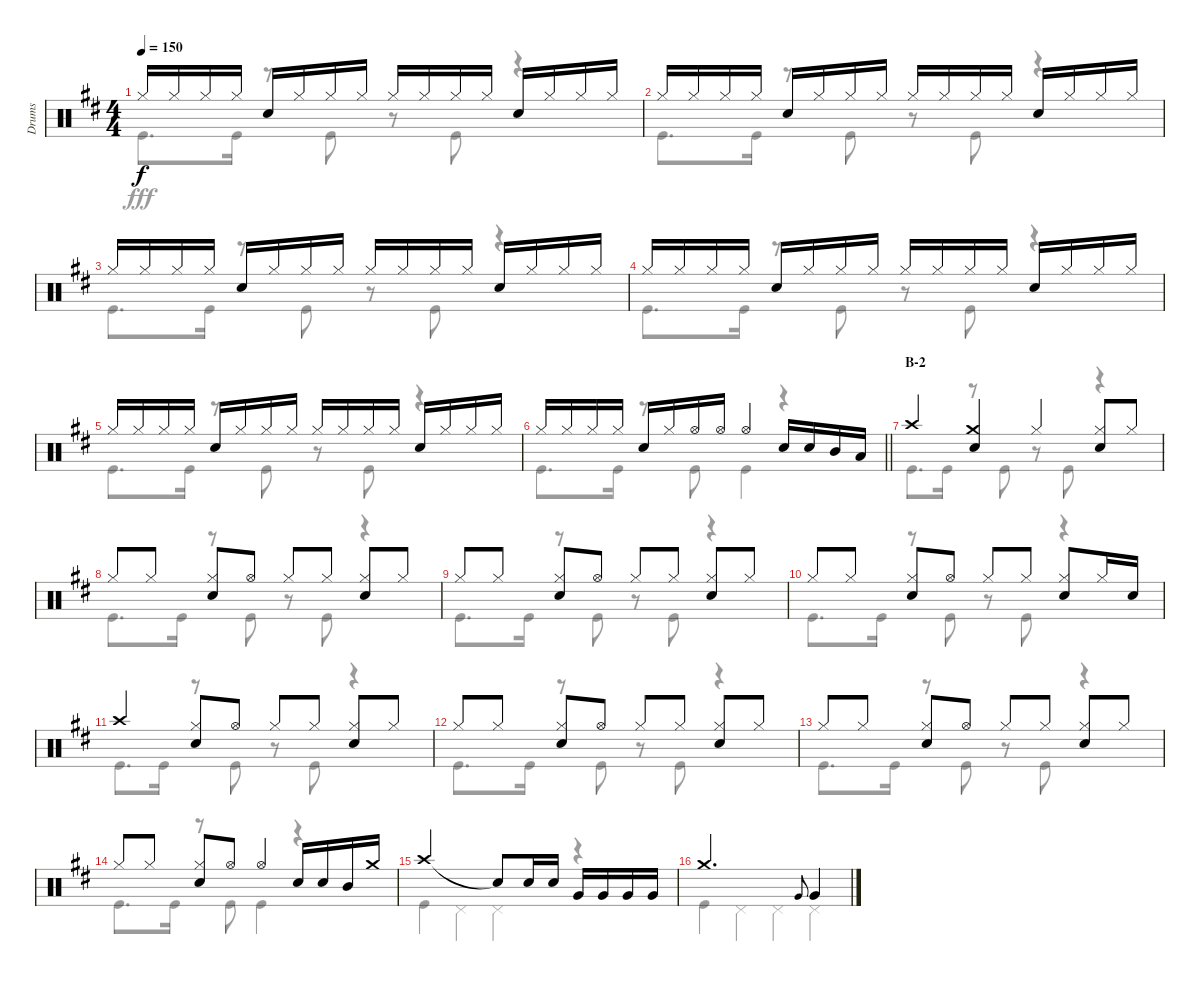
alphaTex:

\track ("Drums" "Drums") {instrument percussion}
\staff {score}
\articulation defaults
\voice
\ts (4 4)
\tempo 150
\clef neutral
\ks d "Hi-Hat (closed)".16{dy f} "Hi-Hat (closed)".16 "Hi-Hat (closed)".16 "Hi-Hat (closed)".16 "Snare (hit) 2".16 "Hi-Hat (closed)".16 "Hi-Hat (closed)".16 "Hi-Hat (closed)".16 "Hi-Hat (closed)".16 "Hi-Hat (closed)".16 "Hi-Hat (closed)".16 "Hi-Hat (closed)".16 "Snare (hit) 2".16 "Hi-Hat (closed)".16 "Hi-Hat (closed)".16 "Hi-Hat (closed)".16
|
"Hi-Hat (closed)".16 "Hi-Hat (closed)".16 "Hi-Hat (closed)".16 "Hi-Hat (closed)".16 "Snare (hit) 2".16 "Hi-Hat (closed)".16 "Hi-Hat (closed)".16 "Hi-Hat (closed)".16 "Hi-Hat (closed)".16 "Hi-Hat (closed)".16 "Hi-Hat (closed)".16 "Hi-Hat (closed)".16 "Snare (hit) 2".16 "Hi-Hat (closed)".16 "Hi-Hat (closed)".16 "Hi-Hat (closed)".16 |
"Hi-Hat (closed)".16 "Hi-Hat (closed)".16 "Hi-Hat (closed)".16 "Hi-Hat (closed)".16 "Snare (hit) 2".16 "Hi-Hat (closed)".16 "Hi-Hat (closed)".16 "Hi-Hat (closed)".16 "Hi-Hat (closed)".16 "Hi-Hat (closed)".16 "Hi-Hat (closed)".16 "Hi-Hat (closed)".16 "Snare (hit) 2".16 "Hi-Hat (closed)".16 "Hi-Hat (closed)".16 "Hi-Hat (closed)".16 |
"Hi-Hat (closed)".16 "Hi-Hat (closed)".16 "Hi-Hat (closed)".16 "Hi-Hat (closed)".16 "Snare (hit) 2".16 "Hi-Hat (closed)".16 "Hi-Hat (closed)".16 "Hi-Hat (closed)".16 "Hi-Hat (closed)".16 "Hi-Hat (closed)".16 "Hi-Hat (closed)".16 "Hi-Hat (closed)".16 "Snare (hit) 2".16 "Hi-Hat (closed)".16 "Hi-Hat (closed)".16 "Hi-Hat (closed)".16 |
"Hi-Hat (closed)".16 "Hi-Hat (closed)".16 "Hi-Hat (closed)".16 "Hi-Hat (closed)".16 "Snare (hit) 2".16 "Hi-Hat (closed)".16 "Hi-Hat (closed)".16 "Hi-Hat (closed)".16 "Hi-Hat (closed)".16 "Hi-Hat (closed)".16 "Hi-Hat (closed)".16 "Hi-Hat (closed)".16 "Snare (hit) 2".16 "Hi-Hat (closed)".16 "Hi-Hat (closed)".16 "Hi-Hat (closed)".16 |
\barLineRight lightlight "Hi-Hat (closed)".16 "Hi-Hat (closed)".16 "Hi-Hat (closed)".16 "Hi-Hat (closed)".16 "Snare (hit) 2".16 "Hi-Hat (closed)".16 "Hi-Hat (open)".16 "Hi-Hat (open)".16 "Hi-Hat (open)".4 "Snare (hit) 2".16 "Snare (hit) 2".16 "Mid Tom (hit)".16 "Low Tom (hit)".16
|
\section ("" "B-2")
"Crash high (hit)".4 ("Crash medium (hit)" "Snare (hit) 2").4 "Hi-Hat (closed)".4 ("Hi-Hat (closed)" "Snare (hit) 2").8 "Hi-Hat (closed)".8 |
"Hi-Hat (closed)".8 "Hi-Hat (closed)".8 ("Hi-Hat (closed)" "Snare (hit) 2").8 "Hi-Hat (open)".8 "Hi-Hat (closed)".8 "Hi-Hat (closed)".8 ("Hi-Hat (closed)" "Snare (hit) 2").8 "Hi-Hat (closed)".8 |
"Hi-Hat (closed)".8 "Hi-Hat (closed)".8 ("Hi-Hat (closed)" "Snare (hit) 2").8 "Hi-Hat (open)".8 "Hi-Hat (closed)".8 "Hi-Hat (closed)".8 ("Hi-Hat (closed)" "Snare (hit) 2").8 "Hi-Hat (closed)".8 |
"Hi-Hat (closed)".8 "Hi-Hat (closed)".8 ("Hi-Hat (closed)" "Snare (hit) 2").8 "Hi-Hat (open)".8 "Hi-Hat (closed)".8 "Hi-Hat (closed)".8 ("Hi-Hat (closed)" "Snare (hit) 2").8 "Hi-Hat (closed)".16 "Snare (hit) 2".16 |
"Crash high (hit)".4 ("Hi-Hat (closed)" "Snare (hit) 2").8 "Hi-Hat (open)".8 "Hi-Hat (closed)".8 "Hi-Hat (closed)".8 ("Hi-Hat (closed)" "Snare (hit) 2").8 "Hi-Hat (closed)".8 |
"Hi-Hat (closed)".8 "Hi-Hat (closed)".8 ("Hi-Hat (closed)" "Snare (hit) 2").8 "Hi-Hat (open)".8 "Hi-Hat (closed)".8 "Hi-Hat (closed)".8 ("Hi-Hat (closed)" "Snare (hit) 2").8 "Hi-Hat (closed)".8 |
"Hi-Hat (closed)".8 "Hi-Hat (closed)".8 ("Hi-Hat (closed)" "Snare (hit) 2").8 "Hi-Hat (open)".8 "Hi-Hat (closed)".8 "Hi-Hat (closed)".8 ("Hi-Hat (closed)" "Snare (hit) 2").8 "Hi-Hat (closed)".8 |
"Hi-Hat (closed)".8 "Hi-Hat (closed)".8 ("Hi-Hat (closed)" "Snare (hit) 2").8 "Hi-Hat (open)".8 "Hi-Hat (open)".4 "Snare (hit) 2".16 "Snare (hit) 2".16 "Mid Tom (hit)".16 "Crash medium (hit)".16 |
"Crash high (hit)".2 "Snare (hit)"{t}.8 "Snare (hit) 2".16 "Snare (hit) 2".16 "Very Low Tom (hit)".16 "Very Low Tom (hit)".16 "Very Low Tom (hit)".16 "Very Low Tom (hit)".16 |
"Crash medium (hit)".2{d} "Very Low Tom (hit)".8{gr onbeat} "Very Low Tom (hit)".4
\voice
\clef neutral
\ottava regular
\simile none
\ks d "Kick (hit)".8{d dy fff} "Kick (hit)".16
r.8 "Kick (hit)".8 r.8 "Kick (hit)".8 r.4 |
"Kick (hit)".8{d} "Kick (hit)".16 r.8 "Kick (hit)".8 r.8 "Kick (hit)".8 r.4 |
"Kick (hit)".8{d} "Kick (hit)".16 r.8 "Kick (hit)".8 r.8 "Kick (hit)".8 r.4 |
"Kick (hit)".8{d} "Kick (hit)".16 r.8 "Kick (hit)".8 r.8 "Kick (hit)".8 r.4 |
"Kick (hit)".8{d} "Kick (hit)".16 r.8 "Kick (hit)".8 r.8 "Kick (hit)".8 r.4 |
\barLineRight lightlight "Kick (hit)".8{d} "Kick (hit)".16
r.8 "Kick (hit)".8 "Kick (hit)".4 r.4 |
"Kick (hit)".8{d} "Kick (hit)".16 r.8 "Kick (hit)".8 r.8 "Kick (hit)".8 r.4 |
"Kick (hit)".8{d} "Kick (hit)".16 r.8 "Kick (hit)".8 r.8 "Kick (hit)".8 r.4 |
"Kick (hit)".8{d} "Kick (hit)".16 r.8 "Kick (hit)".8 r.8 "Kick (hit)".8 r.4 |
"Kick (hit)".8{d} "Kick (hit)".16 r.8 "Kick (hit)".8 r.8 "Kick (hit)".8 r.4 |
"Kick (hit)".8{d} "Kick (hit)".16 r.8 "Kick (hit)".8 r.8 "Kick (hit)".8 r.4 |
"Kick (hit)".8{d} "Kick (hit)".16 r.8 "Kick (hit)".8 r.8 "Kick (hit)".8 r.4 |
"Kick (hit)".8{d} "Kick (hit)".16 r.8 "Kick (hit)".8 r.8 "Kick (hit)".8 r.4 |
"Kick (hit)".8{d} "Kick (hit)".16 r.8 "Kick (hit)".8 "Kick (hit)".4 r.4 |
"Kick (hit)".4 "Pedal Hi-Hat (hit)".4 "Pedal Hi-Hat (hit)".4 r.4 |
"Kick (hit)".4 "Pedal Hi-Hat (hit)".4 "Pedal Hi-Hat (hit)".4 "Pedal Hi-Hat (hit)".4
